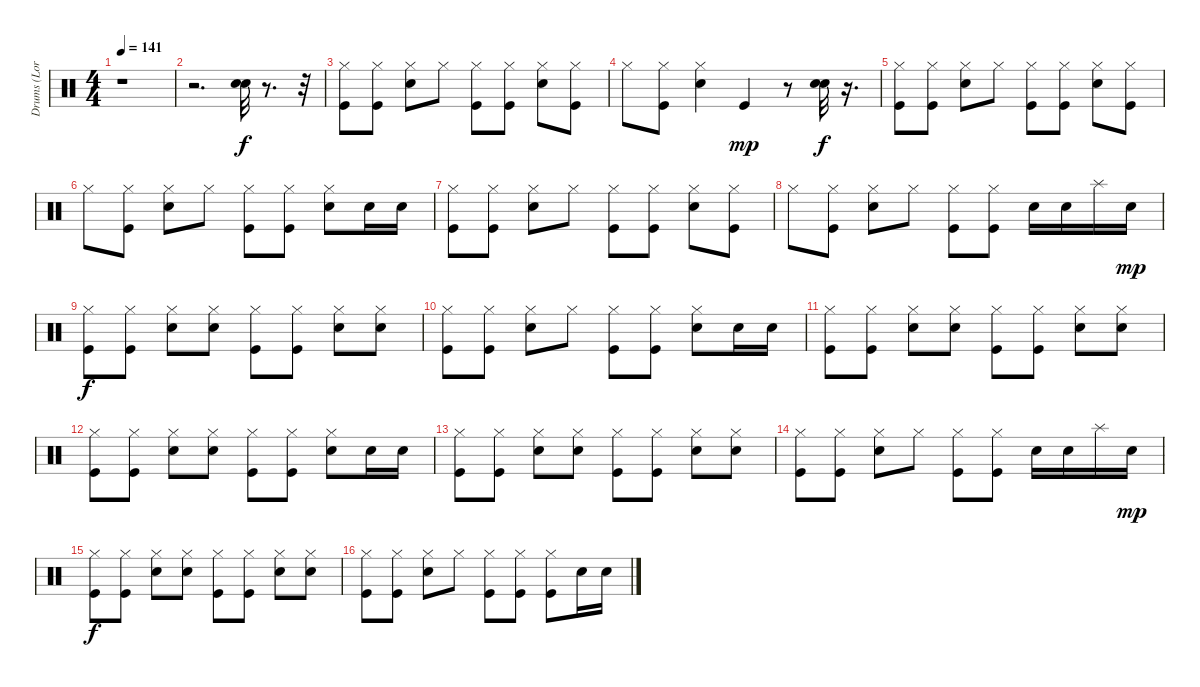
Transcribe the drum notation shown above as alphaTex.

\track ("Drums (Lora)" "Drums (Lor") {instrument percussion}
\staff {score}
\articulation defaults
\ts (4 4)
\tempo 141
\clef neutral
\ks c
r.1{dy f} |
r.2{d} ("Snare (hit) 2" "Snare (hit) 2").32 r.8{d} r.32 |
("Hi-Hat (closed)" "Kick (hit)").8 ("Hi-Hat (closed)" "Kick (hit)").8 ("Hi-Hat (closed)" "Snare (hit) 2").8 "Hi-Hat (closed)".8 ("Hi-Hat (closed)" "Kick (hit)").8 ("Hi-Hat (closed)" "Kick (hit)").8 ("Hi-Hat (closed)" "Snare (hit) 2").8 ("Hi-Hat (closed)" "Kick (hit)").8 |
"Hi-Hat (closed)".8 ("Hi-Hat (closed)" "Kick (hit)").8 ("Hi-Hat (closed)" "Snare (hit) 2").4 "Kick (hit)".4{dy mp} r.8 ("Snare (hit) 2" "Snare (hit) 2").32{dy f} r.16{d} |
("Hi-Hat (closed)" "Kick (hit)").8 ("Hi-Hat (closed)" "Kick (hit)").8 ("Hi-Hat (closed)" "Snare (hit) 2").8 "Hi-Hat (closed)".8 ("Hi-Hat (closed)" "Kick (hit)").8 ("Hi-Hat (closed)" "Kick (hit)").8 ("Hi-Hat (closed)" "Snare (hit) 2").8 ("Hi-Hat (closed)" "Kick (hit)").8 |
"Hi-Hat (closed)".8 ("Hi-Hat (closed)" "Kick (hit)").8 ("Hi-Hat (closed)" "Snare (hit) 2").8 "Hi-Hat (closed)".8 ("Hi-Hat (closed)" "Kick (hit)").8 ("Hi-Hat (closed)" "Kick (hit)").8 ("Hi-Hat (closed)" "Snare (hit) 2").8 "Snare (hit) 2".16 "Snare (hit) 2".16 |
("Hi-Hat (closed)" "Kick (hit)").8 ("Hi-Hat (closed)" "Kick (hit)").8 ("Hi-Hat (closed)" "Snare (hit) 2").8 "Hi-Hat (closed)".8 ("Hi-Hat (closed)" "Kick (hit)").8 ("Hi-Hat (closed)" "Kick (hit)").8 ("Hi-Hat (closed)" "Snare (hit) 2").8 ("Hi-Hat (closed)" "Kick (hit)").8 |
"Hi-Hat (closed)".8 ("Hi-Hat (closed)" "Kick (hit)").8 ("Hi-Hat (closed)" "Snare (hit) 2").8 "Hi-Hat (closed)".8 ("Hi-Hat (closed)" "Kick (hit)").8 ("Hi-Hat (closed)" "Kick (hit)").8 "Snare (hit) 2".16 "Snare (hit) 2".16 "Splash (hit)".16 "Snare (hit) 2".16{dy mp} |
("Hi-Hat (closed)" "Kick (hit)").8{dy f} ("Hi-Hat (closed)" "Kick (hit)").8 ("Hi-Hat (closed)" "Snare (hit) 2").8 ("Hi-Hat (closed)" "Snare (hit) 2").8 ("Hi-Hat (closed)" "Kick (hit)").8 ("Hi-Hat (closed)" "Kick (hit)").8 ("Hi-Hat (closed)" "Snare (hit) 2").8 ("Hi-Hat (closed)" "Snare (hit) 2").8 |
("Hi-Hat (closed)" "Kick (hit)").8 ("Hi-Hat (closed)" "Kick (hit)").8 ("Hi-Hat (closed)" "Snare (hit) 2").8 "Hi-Hat (closed)".8 ("Hi-Hat (closed)" "Kick (hit)").8 ("Hi-Hat (closed)" "Kick (hit)").8 ("Hi-Hat (closed)" "Snare (hit) 2").8 "Snare (hit) 2".16 "Snare (hit) 2".16 |
("Hi-Hat (closed)" "Kick (hit)").8 ("Hi-Hat (closed)" "Kick (hit)").8 ("Hi-Hat (closed)" "Snare (hit) 2").8 ("Hi-Hat (closed)" "Snare (hit) 2").8 ("Hi-Hat (closed)" "Kick (hit)").8 ("Hi-Hat (closed)" "Kick (hit)").8 ("Hi-Hat (closed)" "Snare (hit) 2").8 ("Hi-Hat (closed)" "Snare (hit) 2").8 |
("Hi-Hat (closed)" "Kick (hit)").8 ("Hi-Hat (closed)" "Kick (hit)").8 ("Hi-Hat (closed)" "Snare (hit) 2").8 ("Hi-Hat (closed)" "Snare (hit) 2").8 ("Hi-Hat (closed)" "Kick (hit)").8 ("Hi-Hat (closed)" "Kick (hit)").8 ("Hi-Hat (closed)" "Snare (hit) 2").8 "Snare (hit) 2".16 "Snare (hit) 2".16 |
("Hi-Hat (closed)" "Kick (hit)").8 ("Hi-Hat (closed)" "Kick (hit)").8 ("Hi-Hat (closed)" "Snare (hit) 2").8 ("Hi-Hat (closed)" "Snare (hit) 2").8 ("Hi-Hat (closed)" "Kick (hit)").8 ("Hi-Hat (closed)" "Kick (hit)").8 ("Hi-Hat (closed)" "Snare (hit) 2").8 ("Hi-Hat (closed)" "Snare (hit) 2").8 |
("Hi-Hat (closed)" "Kick (hit)").8 ("Hi-Hat (closed)" "Kick (hit)").8 ("Hi-Hat (closed)" "Snare (hit) 2").8 "Hi-Hat (closed)".8 ("Hi-Hat (closed)" "Kick (hit)").8 ("Hi-Hat (closed)" "Kick (hit)").8 "Snare (hit) 2".16 "Snare (hit) 2".16 "Splash (hit)".16 "Snare (hit) 2".16{dy mp} |
("Hi-Hat (closed)" "Kick (hit)").8{dy f} ("Hi-Hat (closed)" "Kick (hit)").8 ("Hi-Hat (closed)" "Snare (hit) 2").8 ("Hi-Hat (closed)" "Snare (hit) 2").8 ("Hi-Hat (closed)" "Kick (hit)").8 ("Hi-Hat (closed)" "Kick (hit)").8 ("Hi-Hat (closed)" "Snare (hit) 2").8 ("Hi-Hat (closed)" "Snare (hit) 2").8 |
("Hi-Hat (closed)" "Kick (hit)").8 ("Hi-Hat (closed)" "Kick (hit)").8 ("Hi-Hat (closed)" "Snare (hit) 2").8 "Hi-Hat (closed)".8 ("Hi-Hat (closed)" "Kick (hit)").8 ("Hi-Hat (closed)" "Kick (hit)").8 ("Hi-Hat (closed)" "Kick (hit)").8 "Snare (hit) 2".16 "Snare (hit) 2".16
